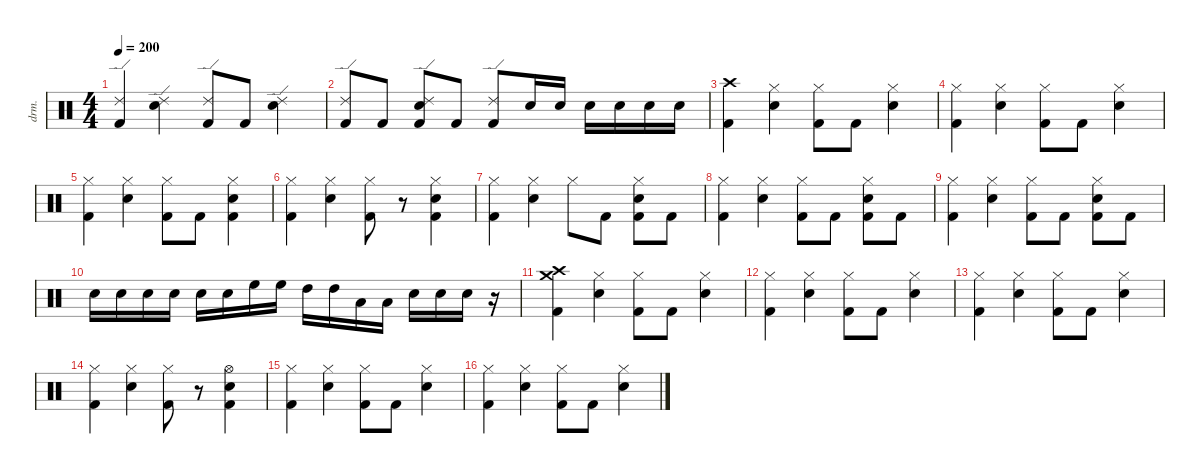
\defaultSystemsLayout 4
\hideDynamics
\bracketExtendMode nobrackets
\track ("Drums" "drm.") {instrument percussion}
\staff {score}
\articulation defaults
\ts (4 4)
\tempo 200
\clef neutral
\ks c
("Ride (edge) 2" "Kick (hit) 2").4{dy mf} ("Ride (edge) 2" "Snare (hit) 2").4 ("Ride (edge) 2" "Kick (hit) 2").8 "Kick (hit) 2".8{dy f} ("Ride (edge) 2" "Snare (hit) 2").4{dy mf} |
("Ride (edge) 2" "Kick (hit) 2").8{dy f} "Kick (hit) 2".8 ("Ride (edge) 2" "Snare (hit) 2" "Kick (hit) 2").8{dy mf} "Kick (hit) 2".8{dy f} ("Ride (edge) 2" "Kick (hit) 2").8{dy mf} "Snare (hit) 2".16{dy fff} "Snare (hit) 2".16 "Snare (hit) 2".16 "Snare (hit) 2".16 "Snare (hit) 2".16 "Snare (hit) 2".16 |
("Crash high (hit)" "Kick (hit) 2").4{dy mf} ("Hi-Hat (closed)" "Snare (hit) 2").4{dy f} ("Hi-Hat (closed)" "Kick (hit) 2").8 "Kick (hit) 2".8{dy ff} ("Hi-Hat (closed)" "Snare (hit) 2").4{dy f} |
("Hi-Hat (closed)" "Kick (hit) 2").4 ("Hi-Hat (closed)" "Snare (hit) 2").4 ("Hi-Hat (closed)" "Kick (hit) 2").8 "Kick (hit) 2".8{dy ff} ("Hi-Hat (closed)" "Snare (hit) 2").4{dy f} |
("Hi-Hat (closed)" "Kick (hit) 2").4 ("Hi-Hat (closed)" "Snare (hit) 2").4 ("Hi-Hat (closed)" "Kick (hit) 2").8 "Kick (hit) 2".8{dy ff} ("Hi-Hat (closed)" "Snare (hit) 2" "Kick (hit) 2").4{dy f} |
("Hi-Hat (closed)" "Kick (hit) 2").4 ("Hi-Hat (closed)" "Snare (hit) 2").4 ("Hi-Hat (closed)" "Kick (hit) 2").8 r.8 ("Hi-Hat (closed)" "Snare (hit) 2" "Kick (hit) 2").4 |
("Hi-Hat (closed)" "Kick (hit) 2").4 ("Hi-Hat (closed)" "Snare (hit) 2").4 "Hi-Hat (closed)".8 "Kick (hit) 2".8{dy ff} ("Hi-Hat (closed)" "Snare (hit) 2" "Kick (hit) 2").8{dy f} "Kick (hit) 2".8{dy ff} |
("Hi-Hat (closed)" "Kick (hit) 2").4{dy f} ("Hi-Hat (closed)" "Snare (hit) 2").4 ("Hi-Hat (closed)" "Kick (hit) 2").8 "Kick (hit) 2".8{dy ff} ("Hi-Hat (closed)" "Snare (hit) 2" "Kick (hit) 2").8{dy f} "Kick (hit) 2".8{dy ff} |
("Hi-Hat (closed)" "Kick (hit) 2").4{dy f} ("Hi-Hat (closed)" "Snare (hit) 2").4 ("Hi-Hat (closed)" "Kick (hit) 2").8 "Kick (hit) 2".8{dy ff} ("Hi-Hat (closed)" "Snare (hit) 2" "Kick (hit) 2").8{dy f} "Kick (hit) 2".8{dy ff} |
"Snare (hit) 2".16{dy fff} "Snare (hit) 2".16 "Snare (hit) 2".16 "Snare (hit) 2".16{dy ff} "Snare (hit) 2".16 "Snare (hit) 2".16{dy f} "High Floor Tom (hit)".16{dy fff} "High Floor Tom (hit)".16 "High Tom (hit)".16 "High Tom (hit)".16 "Low Tom (hit)".16 "Low Tom (hit)".16 "Snare (hit) 2".16 "Snare (hit) 2".16 "Snare (hit) 2".16 r.16 |
("Crash high (hit)" "Crash medium (hit)" "Kick (hit) 2").4{dy f} ("Hi-Hat (closed)" "Snare (hit) 2").4 ("Hi-Hat (closed)" "Kick (hit) 2").8 "Kick (hit) 2".8 ("Hi-Hat (closed)" "Snare (hit) 2").4 |
("Hi-Hat (closed)" "Kick (hit) 2").4 ("Hi-Hat (closed)" "Snare (hit) 2").4 ("Hi-Hat (closed)" "Kick (hit) 2").8 "Kick (hit) 2".8 ("Hi-Hat (closed)" "Snare (hit) 2").4 |
("Hi-Hat (closed)" "Kick (hit) 2").4 ("Hi-Hat (closed)" "Snare (hit) 2").4 ("Hi-Hat (closed)" "Kick (hit) 2").8 "Kick (hit) 2".8 ("Hi-Hat (closed)" "Snare (hit) 2").4 |
("Hi-Hat (closed)" "Kick (hit) 2").4 ("Hi-Hat (closed)" "Snare (hit) 2").4 ("Hi-Hat (closed)" "Kick (hit) 2").8 r.8 ("Hi-Hat (open)" "Snare (hit) 2" "Kick (hit) 2").4 |
("Hi-Hat (closed)" "Kick (hit) 2").4 ("Hi-Hat (closed)" "Snare (hit) 2").4 ("Hi-Hat (closed)" "Kick (hit) 2").8 "Kick (hit) 2".8 ("Hi-Hat (closed)" "Snare (hit) 2").4 |
("Hi-Hat (closed)" "Kick (hit) 2").4 ("Hi-Hat (closed)" "Snare (hit) 2").4 ("Hi-Hat (closed)" "Kick (hit) 2").8 "Kick (hit) 2".8 ("Hi-Hat (closed)" "Snare (hit) 2").4
